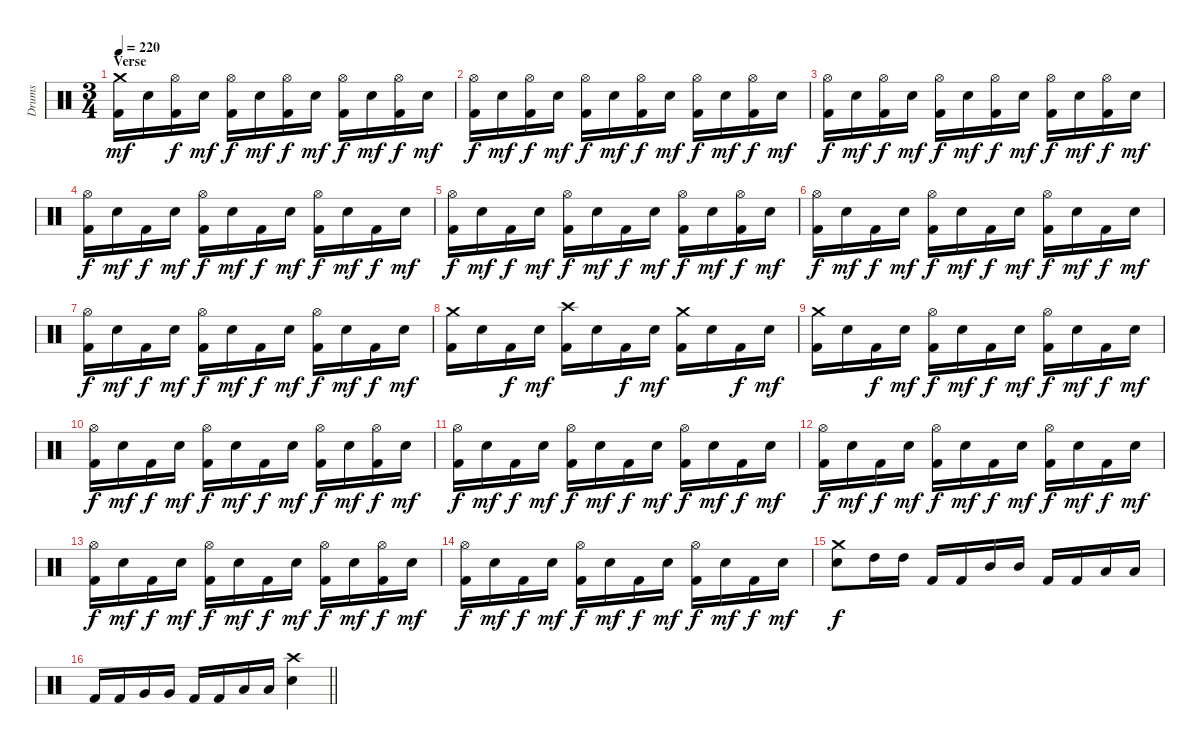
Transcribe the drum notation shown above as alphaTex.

\track ("Drums" "Drums") {instrument percussion}
\staff {score}
\articulation defaults
\ts (3 4)
\section ("" "Verse")
\tempo 220
\clef neutral
\ks c
("Crash medium (hit)" "Kick (hit) 2").16{dy mf} "Electric Snare (hit)".16 ("Hi-Hat (open)" "Kick (hit) 2").16{dy f} "Electric Snare (hit)".16{dy mf} ("Hi-Hat (open)" "Kick (hit) 2").16{dy f} "Electric Snare (hit)".16{dy mf} ("Hi-Hat (open)" "Kick (hit) 2").16{dy f} "Electric Snare (hit)".16{dy mf} ("Hi-Hat (open)" "Kick (hit) 2").16{dy f} "Electric Snare (hit)".16{dy mf} ("Hi-Hat (open)" "Kick (hit) 2").16{dy f} "Electric Snare (hit)".16{dy mf} |
("Hi-Hat (open)" "Kick (hit) 2").16{dy f} "Electric Snare (hit)".16{dy mf} ("Hi-Hat (open)" "Kick (hit) 2").16{dy f} "Electric Snare (hit)".16{dy mf} ("Hi-Hat (open)" "Kick (hit) 2").16{dy f} "Electric Snare (hit)".16{dy mf} ("Hi-Hat (open)" "Kick (hit) 2").16{dy f} "Electric Snare (hit)".16{dy mf} ("Hi-Hat (open)" "Kick (hit) 2").16{dy f} "Electric Snare (hit)".16{dy mf} ("Hi-Hat (open)" "Kick (hit) 2").16{dy f} "Electric Snare (hit)".16{dy mf} |
("Hi-Hat (open)" "Kick (hit) 2").16{dy f} "Electric Snare (hit)".16{dy mf} ("Hi-Hat (open)" "Kick (hit) 2").16{dy f} "Electric Snare (hit)".16{dy mf} ("Hi-Hat (open)" "Kick (hit) 2").16{dy f} "Electric Snare (hit)".16{dy mf} ("Hi-Hat (open)" "Kick (hit) 2").16{dy f} "Electric Snare (hit)".16{dy mf} ("Hi-Hat (open)" "Kick (hit) 2").16{dy f} "Electric Snare (hit)".16{dy mf} ("Hi-Hat (open)" "Kick (hit) 2").16{dy f} "Electric Snare (hit)".16{dy mf} |
("Hi-Hat (open)" "Kick (hit) 2").16{dy f} "Electric Snare (hit)".16{dy mf} "Kick (hit) 2".16{dy f} "Electric Snare (hit)".16{dy mf} ("Hi-Hat (open)" "Kick (hit) 2").16{dy f} "Electric Snare (hit)".16{dy mf} "Kick (hit) 2".16{dy f} "Electric Snare (hit)".16{dy mf} ("Hi-Hat (open)" "Kick (hit) 2").16{dy f} "Electric Snare (hit)".16{dy mf} "Kick (hit) 2".16{dy f} "Electric Snare (hit)".16{dy mf} |
("Hi-Hat (open)" "Kick (hit) 2").16{dy f} "Electric Snare (hit)".16{dy mf} "Kick (hit) 2".16{dy f} "Electric Snare (hit)".16{dy mf} ("Hi-Hat (open)" "Kick (hit) 2").16{dy f} "Electric Snare (hit)".16{dy mf} "Kick (hit) 2".16{dy f} "Electric Snare (hit)".16{dy mf} ("Hi-Hat (open)" "Kick (hit) 2").16{dy f} "Electric Snare (hit)".16{dy mf} ("Hi-Hat (open)" "Kick (hit) 2").16{dy f} "Electric Snare (hit)".16{dy mf} |
("Hi-Hat (open)" "Kick (hit) 2").16{dy f} "Electric Snare (hit)".16{dy mf} "Kick (hit) 2".16{dy f} "Electric Snare (hit)".16{dy mf} ("Hi-Hat (open)" "Kick (hit) 2").16{dy f} "Electric Snare (hit)".16{dy mf} "Kick (hit) 2".16{dy f} "Electric Snare (hit)".16{dy mf} ("Hi-Hat (open)" "Kick (hit) 2").16{dy f} "Electric Snare (hit)".16{dy mf} "Kick (hit) 2".16{dy f} "Electric Snare (hit)".16{dy mf} |
("Hi-Hat (open)" "Kick (hit) 2").16{dy f} "Electric Snare (hit)".16{dy mf} "Kick (hit) 2".16{dy f} "Electric Snare (hit)".16{dy mf} ("Hi-Hat (open)" "Kick (hit) 2").16{dy f} "Electric Snare (hit)".16{dy mf} "Kick (hit) 2".16{dy f} "Electric Snare (hit)".16{dy mf} ("Hi-Hat (open)" "Kick (hit) 2").16{dy f} "Electric Snare (hit)".16{dy mf} "Kick (hit) 2".16{dy f} "Electric Snare (hit)".16{dy mf} |
("Crash medium (hit)" "Kick (hit) 2").16 "Electric Snare (hit)".16 "Kick (hit) 2".16{dy f} "Electric Snare (hit)".16{dy mf} ("Crash high (hit)" "Kick (hit) 2").16 "Electric Snare (hit)".16 "Kick (hit) 2".16{dy f} "Electric Snare (hit)".16{dy mf} ("Crash medium (hit)" "Kick (hit) 2").16 "Electric Snare (hit)".16 "Kick (hit) 2".16{dy f} "Electric Snare (hit)".16{dy mf} |
("Crash medium (hit)" "Kick (hit) 2").16 "Electric Snare (hit)".16 "Kick (hit) 2".16{dy f} "Electric Snare (hit)".16{dy mf} ("Hi-Hat (open)" "Kick (hit) 2").16{dy f} "Electric Snare (hit)".16{dy mf} "Kick (hit) 2".16{dy f} "Electric Snare (hit)".16{dy mf} ("Hi-Hat (open)" "Kick (hit) 2").16{dy f} "Electric Snare (hit)".16{dy mf} "Kick (hit) 2".16{dy f} "Electric Snare (hit)".16{dy mf} |
("Hi-Hat (open)" "Kick (hit) 2").16{dy f} "Electric Snare (hit)".16{dy mf} "Kick (hit) 2".16{dy f} "Electric Snare (hit)".16{dy mf} ("Hi-Hat (open)" "Kick (hit) 2").16{dy f} "Electric Snare (hit)".16{dy mf} "Kick (hit) 2".16{dy f} "Electric Snare (hit)".16{dy mf} ("Hi-Hat (open)" "Kick (hit) 2").16{dy f} "Electric Snare (hit)".16{dy mf} ("Hi-Hat (open)" "Kick (hit) 2").16{dy f} "Electric Snare (hit)".16{dy mf} |
("Hi-Hat (open)" "Kick (hit) 2").16{dy f} "Electric Snare (hit)".16{dy mf} "Kick (hit) 2".16{dy f} "Electric Snare (hit)".16{dy mf} ("Hi-Hat (open)" "Kick (hit) 2").16{dy f} "Electric Snare (hit)".16{dy mf} "Kick (hit) 2".16{dy f} "Electric Snare (hit)".16{dy mf} ("Hi-Hat (open)" "Kick (hit) 2").16{dy f} "Electric Snare (hit)".16{dy mf} "Kick (hit) 2".16{dy f} "Electric Snare (hit)".16{dy mf} |
("Hi-Hat (open)" "Kick (hit) 2").16{dy f} "Electric Snare (hit)".16{dy mf} "Kick (hit) 2".16{dy f} "Electric Snare (hit)".16{dy mf} ("Hi-Hat (open)" "Kick (hit) 2").16{dy f} "Electric Snare (hit)".16{dy mf} "Kick (hit) 2".16{dy f} "Electric Snare (hit)".16{dy mf} ("Hi-Hat (open)" "Kick (hit) 2").16{dy f} "Electric Snare (hit)".16{dy mf} "Kick (hit) 2".16{dy f} "Electric Snare (hit)".16{dy mf} |
("Hi-Hat (open)" "Kick (hit) 2").16{dy f} "Electric Snare (hit)".16{dy mf} "Kick (hit) 2".16{dy f} "Electric Snare (hit)".16{dy mf} ("Hi-Hat (open)" "Kick (hit) 2").16{dy f} "Electric Snare (hit)".16{dy mf} "Kick (hit) 2".16{dy f} "Electric Snare (hit)".16{dy mf} ("Hi-Hat (open)" "Kick (hit) 2").16{dy f} "Electric Snare (hit)".16{dy mf} ("Hi-Hat (open)" "Kick (hit) 2").16{dy f} "Electric Snare (hit)".16{dy mf} |
("Hi-Hat (open)" "Kick (hit) 2").16{dy f} "Electric Snare (hit)".16{dy mf} "Kick (hit) 2".16{dy f} "Electric Snare (hit)".16{dy mf} ("Hi-Hat (open)" "Kick (hit) 2").16{dy f} "Electric Snare (hit)".16{dy mf} "Kick (hit) 2".16{dy f} "Electric Snare (hit)".16{dy mf} ("Hi-Hat (open)" "Kick (hit) 2").16{dy f} "Electric Snare (hit)".16{dy mf} "Kick (hit) 2".16{dy f} "Electric Snare (hit)".16{dy mf} |
("Crash medium (hit)" "Electric Snare (hit)").8{dy f} "High Tom (hit)".16 "High Tom (hit)".16 "Kick (hit) 2".16 "Kick (hit) 2".16 "Mid Tom (hit)".16 "Mid Tom (hit)".16 "Kick (hit) 2".16 "Kick (hit) 2".16 "Low Tom (hit)".16 "Low Tom (hit)".16 |
\barLineRight lightlight "Kick (hit) 2".16 "Kick (hit) 2".16 "Very Low Tom (hit)".16 "Very Low Tom (hit)".16 "Kick (hit) 2".16 "Kick (hit) 2".16 "Low Floor Tom (hit)".16 "Low Floor Tom (hit)".16
("Crash high (hit)" "Electric Snare (hit)").4
